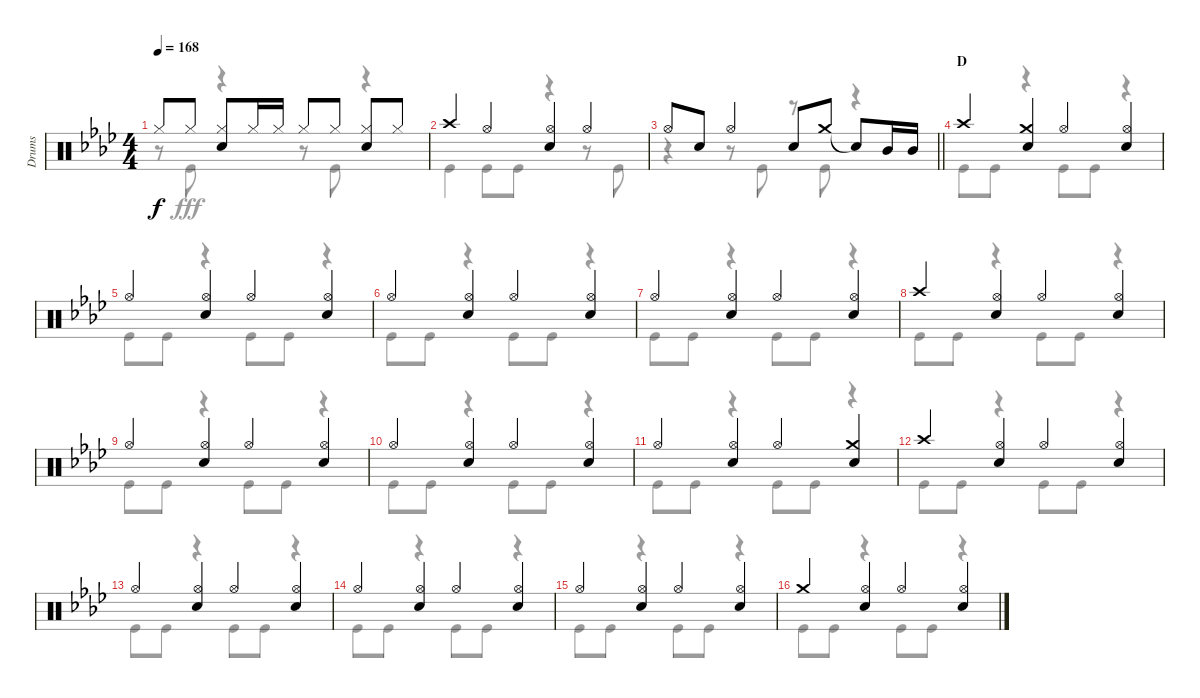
\track ("Drums" "Drums") {instrument percussion}
\staff {score}
\articulation defaults
\voice
\ts (4 4)
\tempo 168
\clef neutral
\ks ab "Hi-Hat (closed)".8{dy f} "Hi-Hat (closed)".8
("Hi-Hat (closed)" "Snare (hit) 2").8 "Hi-Hat (closed)".16 "Hi-Hat (closed)".16 "Hi-Hat (closed)".8 "Hi-Hat (closed)".8 ("Hi-Hat (closed)" "Snare (hit) 2").8 "Hi-Hat (closed)".8 |
"Crash high (hit)".4 "Hi-Hat (open)".4 ("Hi-Hat (open)" "Snare (hit) 2").4 "Hi-Hat (open)".4 |
\barLineRight lightlight "Hi-Hat (open)".8 "Snare (hit) 2".8 "Hi-Hat (open)".4 "Snare (hit) 2".8 "Crash medium (hit)".8 "Snare (hit)"{t}.8 "Mid Tom (hit)".16 "Mid Tom (hit)".16
|
\section ("" "D")
"Crash high (hit)".4 ("Crash medium (hit)" "Snare (hit) 2").4 "Hi-Hat (open)".4 ("Hi-Hat (open)" "Snare (hit) 2").4 |
"Hi-Hat (open)".4 ("Hi-Hat (open)" "Snare (hit) 2").4 "Hi-Hat (open)".4 ("Hi-Hat (open)" "Snare (hit) 2").4 |
"Hi-Hat (open)".4 ("Hi-Hat (open)" "Snare (hit) 2").4 "Hi-Hat (open)".4 ("Hi-Hat (open)" "Snare (hit) 2").4 |
"Hi-Hat (open)".4 ("Hi-Hat (open)" "Snare (hit) 2").4 "Hi-Hat (open)".4 ("Hi-Hat (open)" "Snare (hit) 2").4 |
"Crash high (hit)".4 ("Hi-Hat (open)" "Snare (hit) 2").4 "Hi-Hat (open)".4 ("Hi-Hat (open)" "Snare (hit) 2").4 |
"Hi-Hat (open)".4 ("Hi-Hat (open)" "Snare (hit) 2").4 "Hi-Hat (open)".4 ("Hi-Hat (open)" "Snare (hit) 2").4 |
"Hi-Hat (open)".4 ("Hi-Hat (open)" "Snare (hit) 2").4 "Hi-Hat (open)".4 ("Hi-Hat (open)" "Snare (hit) 2").4 |
"Hi-Hat (open)".4 ("Hi-Hat (open)" "Snare (hit) 2").4 "Hi-Hat (open)".4 ("Crash medium (hit)" "Snare (hit) 2").4 |
"Crash high (hit)".4 ("Hi-Hat (open)" "Snare (hit) 2").4 "Hi-Hat (open)".4 ("Hi-Hat (open)" "Snare (hit) 2").4 |
"Hi-Hat (open)".4 ("Hi-Hat (open)" "Snare (hit) 2").4 "Hi-Hat (open)".4 ("Hi-Hat (open)" "Snare (hit) 2").4 |
"Hi-Hat (open)".4 ("Hi-Hat (open)" "Snare (hit) 2").4 "Hi-Hat (open)".4 ("Hi-Hat (open)" "Snare (hit) 2").4 |
"Hi-Hat (open)".4 ("Hi-Hat (open)" "Snare (hit) 2").4 "Hi-Hat (open)".4 ("Hi-Hat (open)" "Snare (hit) 2").4 |
"Crash medium (hit)".4 ("Hi-Hat (open)" "Snare (hit) 2").4 "Hi-Hat (open)".4 ("Hi-Hat (open)" "Snare (hit) 2").4
\voice
\clef neutral
\ottava regular
\simile none
\ks ab
r.8{dy fff} "Kick (hit)".8 r.4 r.8 "Kick (hit)".8 r.4 |
"Kick (hit)".4 "Kick (hit)".8 "Kick (hit)".8 r.4 r.8 "Kick (hit)".8 |
\barLineRight lightlight
r.4 r.8 "Kick (hit)".8 r.8 "Kick (hit)".8 r.4 |
"Kick (hit)".8 "Kick (hit)".8 r.4 "Kick (hit)".8 "Kick (hit)".8 r.4 |
"Kick (hit)".8 "Kick (hit)".8 r.4 "Kick (hit)".8 "Kick (hit)".8 r.4 |
"Kick (hit)".8 "Kick (hit)".8 r.4 "Kick (hit)".8 "Kick (hit)".8 r.4 |
"Kick (hit)".8 "Kick (hit)".8 r.4 "Kick (hit)".8 "Kick (hit)".8 r.4 |
"Kick (hit)".8 "Kick (hit)".8 r.4 "Kick (hit)".8 "Kick (hit)".8 r.4 |
"Kick (hit)".8 "Kick (hit)".8 r.4 "Kick (hit)".8 "Kick (hit)".8 r.4 |
"Kick (hit)".8 "Kick (hit)".8 r.4 "Kick (hit)".8 "Kick (hit)".8 r.4 |
"Kick (hit)".8 "Kick (hit)".8 r.4 "Kick (hit)".8 "Kick (hit)".8 r.4 |
"Kick (hit)".8 "Kick (hit)".8 r.4 "Kick (hit)".8 "Kick (hit)".8 r.4 |
"Kick (hit)".8 "Kick (hit)".8 r.4 "Kick (hit)".8 "Kick (hit)".8 r.4 |
"Kick (hit)".8 "Kick (hit)".8 r.4 "Kick (hit)".8 "Kick (hit)".8 r.4 |
"Kick (hit)".8 "Kick (hit)".8 r.4 "Kick (hit)".8 "Kick (hit)".8 r.4 |
"Kick (hit)".8 "Kick (hit)".8 r.4 "Kick (hit)".8 "Kick (hit)".8 r.4
